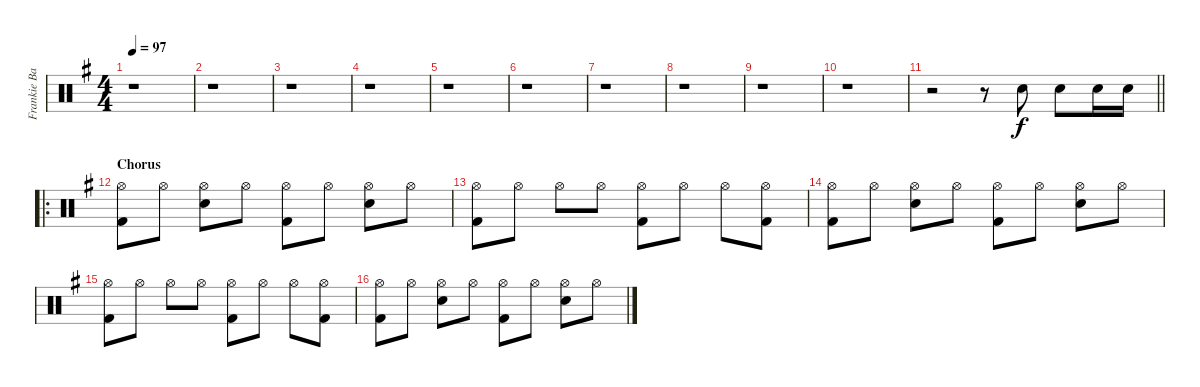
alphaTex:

\track ("Frankie Banali" "Frankie Ba") {instrument percussion}
\staff {score}
\articulation defaults
\ts (4 4)
\tempo 97
\clef neutral
\ks g
r.1{dy f} |
r.1 |
r.1 |
r.1 |
r.1 |
r.1 |
r.1 |
r.1 |
r.1 |
r.1 |
\barLineRight lightlight
r.2 r.8 "Snare (hit) 2".8 "Snare (hit) 2".8 "Snare (hit) 2".16 "Snare (hit) 2".16 |
\ro
\section ("" "Chorus")
("Hi-Hat (open)" "Kick (hit) 2").8 "Hi-Hat (open)".8 ("Hi-Hat (open)" "Snare (hit) 2").8 "Hi-Hat (open)".8 ("Hi-Hat (open)" "Kick (hit) 2").8 "Hi-Hat (open)".8 ("Hi-Hat (open)" "Snare (hit) 2").8 "Hi-Hat (open)".8 |
("Hi-Hat (open)" "Kick (hit) 2").8 "Hi-Hat (open)".8 "Hi-Hat (open)".8 "Hi-Hat (open)".8 ("Hi-Hat (open)" "Kick (hit) 2").8 "Hi-Hat (open)".8 "Hi-Hat (open)".8 ("Hi-Hat (open)" "Kick (hit) 2").8 |
("Hi-Hat (open)" "Kick (hit) 2").8 "Hi-Hat (open)".8 ("Hi-Hat (open)" "Snare (hit) 2").8 "Hi-Hat (open)".8 ("Hi-Hat (open)" "Kick (hit) 2").8 "Hi-Hat (open)".8 ("Hi-Hat (open)" "Snare (hit) 2").8 "Hi-Hat (open)".8 |
("Hi-Hat (open)" "Kick (hit) 2").8 "Hi-Hat (open)".8 "Hi-Hat (open)".8 "Hi-Hat (open)".8 ("Hi-Hat (open)" "Kick (hit) 2").8 "Hi-Hat (open)".8 "Hi-Hat (open)".8 ("Hi-Hat (open)" "Kick (hit) 2").8 |
("Hi-Hat (open)" "Kick (hit) 2").8 "Hi-Hat (open)".8 ("Hi-Hat (open)" "Snare (hit) 2").8 "Hi-Hat (open)".8 ("Hi-Hat (open)" "Kick (hit) 2").8 "Hi-Hat (open)".8 ("Hi-Hat (open)" "Snare (hit) 2").8 "Hi-Hat (open)".8
